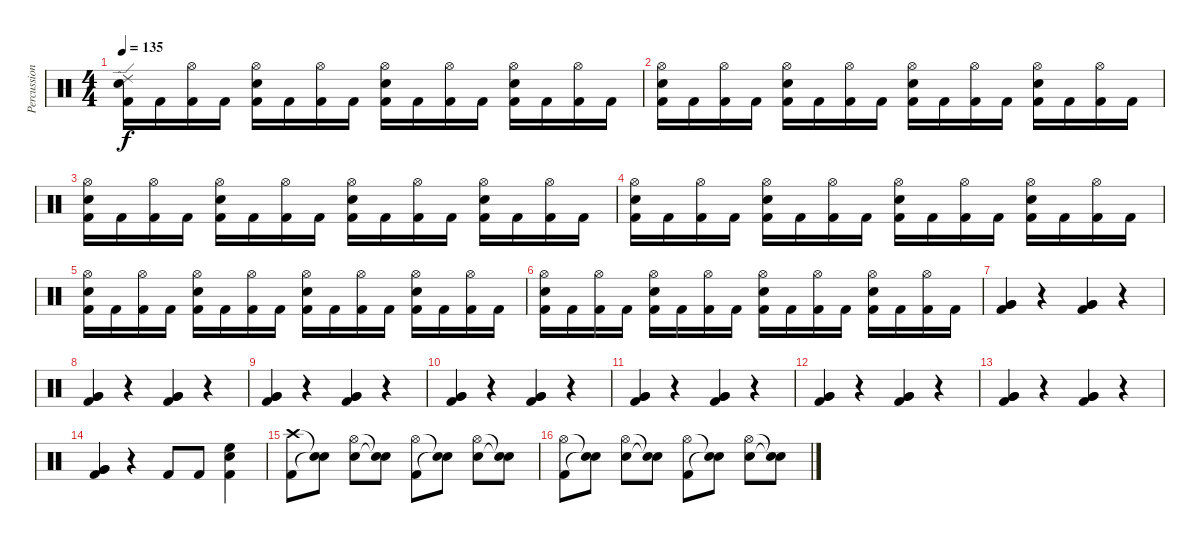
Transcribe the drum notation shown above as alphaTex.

\track ("Percussion" "Percussion") {instrument percussion}
\staff {score}
\articulation defaults
\ts (4 4)
\tempo 135
\clef neutral
\ks c
("Ride (edge) 2" "Snare (hit) 2" "Kick (hit) 2").16{dy f} "Kick (hit) 2".16 ("Hi-Hat (open)" "Kick (hit) 2").16 "Kick (hit) 2".16 ("Hi-Hat (open)" "Snare (hit) 2" "Kick (hit) 2").16 "Kick (hit) 2".16 ("Hi-Hat (open)" "Kick (hit) 2").16 "Kick (hit) 2".16 ("Hi-Hat (open)" "Snare (hit) 2" "Kick (hit) 2").16 "Kick (hit) 2".16 ("Hi-Hat (open)" "Kick (hit) 2").16 "Kick (hit) 2".16 ("Hi-Hat (open)" "Snare (hit) 2" "Kick (hit) 2").16 "Kick (hit) 2".16 ("Hi-Hat (open)" "Kick (hit) 2").16 "Kick (hit) 2".16 |
("Hi-Hat (open)" "Snare (hit) 2" "Kick (hit) 2").16 "Kick (hit) 2".16 ("Hi-Hat (open)" "Kick (hit) 2").16 "Kick (hit) 2".16 ("Hi-Hat (open)" "Snare (hit) 2" "Kick (hit) 2").16 "Kick (hit) 2".16 ("Hi-Hat (open)" "Kick (hit) 2").16 "Kick (hit) 2".16 ("Hi-Hat (open)" "Snare (hit) 2" "Kick (hit) 2").16 "Kick (hit) 2".16 ("Hi-Hat (open)" "Kick (hit) 2").16 "Kick (hit) 2".16 ("Hi-Hat (open)" "Snare (hit) 2" "Kick (hit) 2").16 "Kick (hit) 2".16 ("Hi-Hat (open)" "Kick (hit) 2").16 "Kick (hit) 2".16 |
("Hi-Hat (open)" "Snare (hit) 2" "Kick (hit) 2").16 "Kick (hit) 2".16 ("Hi-Hat (open)" "Kick (hit) 2").16 "Kick (hit) 2".16 ("Hi-Hat (open)" "Snare (hit) 2" "Kick (hit) 2").16 "Kick (hit) 2".16 ("Hi-Hat (open)" "Kick (hit) 2").16 "Kick (hit) 2".16 ("Hi-Hat (open)" "Snare (hit) 2" "Kick (hit) 2").16 "Kick (hit) 2".16 ("Hi-Hat (open)" "Kick (hit) 2").16 "Kick (hit) 2".16 ("Hi-Hat (open)" "Snare (hit) 2" "Kick (hit) 2").16 "Kick (hit) 2".16 ("Hi-Hat (open)" "Kick (hit) 2").16 "Kick (hit) 2".16 |
("Hi-Hat (open)" "Snare (hit) 2" "Kick (hit) 2").16 "Kick (hit) 2".16 ("Hi-Hat (open)" "Kick (hit) 2").16 "Kick (hit) 2".16 ("Hi-Hat (open)" "Snare (hit) 2" "Kick (hit) 2").16 "Kick (hit) 2".16 ("Hi-Hat (open)" "Kick (hit) 2").16 "Kick (hit) 2".16 ("Hi-Hat (open)" "Snare (hit) 2" "Kick (hit) 2").16 "Kick (hit) 2".16 ("Hi-Hat (open)" "Kick (hit) 2").16 "Kick (hit) 2".16 ("Hi-Hat (open)" "Snare (hit) 2" "Kick (hit) 2").16 "Kick (hit) 2".16 ("Hi-Hat (open)" "Kick (hit) 2").16 "Kick (hit) 2".16 |
("Hi-Hat (open)" "Snare (hit) 2" "Kick (hit) 2").16 "Kick (hit) 2".16 ("Hi-Hat (open)" "Kick (hit) 2").16 "Kick (hit) 2".16 ("Hi-Hat (open)" "Snare (hit) 2" "Kick (hit) 2").16 "Kick (hit) 2".16 ("Hi-Hat (open)" "Kick (hit) 2").16 "Kick (hit) 2".16 ("Hi-Hat (open)" "Snare (hit) 2" "Kick (hit) 2").16 "Kick (hit) 2".16 ("Hi-Hat (open)" "Kick (hit) 2").16 "Kick (hit) 2".16 ("Hi-Hat (open)" "Snare (hit) 2" "Kick (hit) 2").16 "Kick (hit) 2".16 ("Hi-Hat (open)" "Kick (hit) 2").16 "Kick (hit) 2".16 |
("Hi-Hat (open)" "Snare (hit) 2" "Kick (hit) 2").16 "Kick (hit) 2".16 ("Hi-Hat (open)" "Kick (hit) 2").16 "Kick (hit) 2".16 ("Hi-Hat (open)" "Snare (hit) 2" "Kick (hit) 2").16 "Kick (hit) 2".16 ("Hi-Hat (open)" "Kick (hit) 2").16 "Kick (hit) 2".16 ("Hi-Hat (open)" "Snare (hit) 2" "Kick (hit) 2").16 "Kick (hit) 2".16 ("Hi-Hat (open)" "Kick (hit) 2").16 "Kick (hit) 2".16 ("Hi-Hat (open)" "Snare (hit) 2" "Kick (hit) 2").16 "Kick (hit) 2".16 ("Hi-Hat (open)" "Kick (hit) 2").16 "Kick (hit) 2".16 |
("Very Low Tom (hit)" "Very Low Tom (hit)" "Kick (hit) 2").4 r.4 ("Very Low Tom (hit)" "Very Low Tom (hit)" "Kick (hit) 2").4 r.4 |
("Very Low Tom (hit)" "Very Low Tom (hit)" "Kick (hit) 2").4 r.4 ("Very Low Tom (hit)" "Very Low Tom (hit)" "Kick (hit) 2").4 r.4 |
("Very Low Tom (hit)" "Very Low Tom (hit)" "Kick (hit) 2").4 r.4 ("Very Low Tom (hit)" "Very Low Tom (hit)" "Kick (hit) 2").4 r.4 |
("Very Low Tom (hit)" "Very Low Tom (hit)" "Kick (hit) 2").4 r.4 ("Very Low Tom (hit)" "Very Low Tom (hit)" "Kick (hit) 2").4 r.4 |
("Very Low Tom (hit)" "Very Low Tom (hit)" "Kick (hit) 2").4 r.4 ("Very Low Tom (hit)" "Very Low Tom (hit)" "Kick (hit) 2").4 r.4 |
("Very Low Tom (hit)" "Very Low Tom (hit)" "Kick (hit) 2").4 r.4 ("Very Low Tom (hit)" "Very Low Tom (hit)" "Kick (hit) 2").4 r.4 |
("Very Low Tom (hit)" "Very Low Tom (hit)" "Kick (hit) 2").4 r.4 ("Very Low Tom (hit)" "Very Low Tom (hit)" "Kick (hit) 2").4 r.4 |
("Very Low Tom (hit)" "Very Low Tom (hit)" "Kick (hit) 2").4 r.4 "Kick (hit) 2".8 "Kick (hit) 2".8 ("High Floor Tom (hit)" "Snare (hit) 2" "Kick (hit) 2").4 |
("Crash high (hit)" "Kick (hit) 2").8 ("Snare (hit)"{t} "Snare (hit)"{t}).8 ("Hi-Hat (open)" "Snare (hit) 2").8 ("Snare (hit)"{t} "Snare (hit)"{t}).8 ("Hi-Hat (open)" "Kick (hit) 2").8 ("Snare (hit)"{t} "Snare (hit)"{t}).8 ("Hi-Hat (open)" "Snare (hit) 2").8 ("Snare (hit)"{t} "Snare (hit)"{t}).8 |
("Hi-Hat (open)" "Kick (hit) 2").8 ("Snare (hit)"{t} "Snare (hit)"{t}).8 ("Hi-Hat (open)" "Snare (hit) 2").8 ("Snare (hit)"{t} "Snare (hit)"{t}).8 ("Hi-Hat (open)" "Kick (hit) 2").8 ("Snare (hit)"{t} "Snare (hit)"{t}).8 ("Hi-Hat (open)" "Snare (hit) 2").8 ("Snare (hit)"{t} "Snare (hit)"{t}).8
